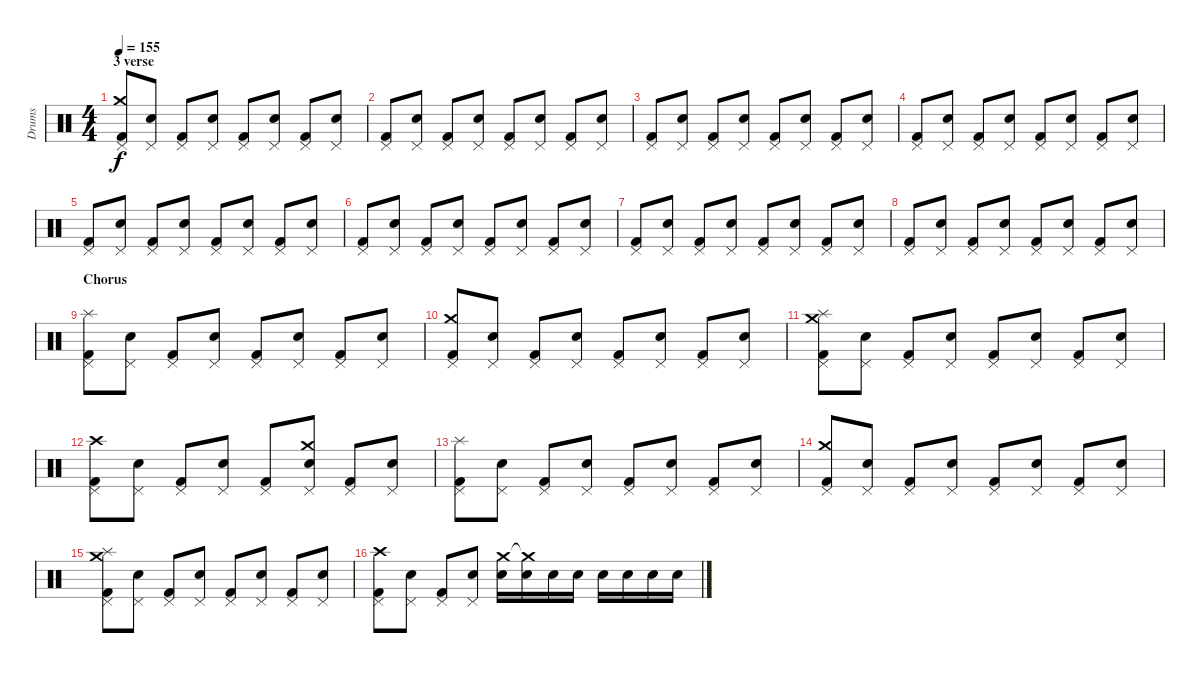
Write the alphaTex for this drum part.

\track ("Drums" "Drums") {instrument percussion}
\staff {score}
\articulation defaults
\ts (4 4)
\section ("" "3 verse")
\tempo 155
\clef neutral
\ks c
("Pedal Hi-Hat (hit)" "Crash medium (hit)" "Kick (hit) 2").8{dy f} ("Pedal Hi-Hat (hit)" "Electric Snare (hit)").8 ("Pedal Hi-Hat (hit)" "Kick (hit) 2").8 ("Pedal Hi-Hat (hit)" "Electric Snare (hit)").8 ("Pedal Hi-Hat (hit)" "Kick (hit) 2").8 ("Pedal Hi-Hat (hit)" "Electric Snare (hit)").8 ("Pedal Hi-Hat (hit)" "Kick (hit) 2").8 ("Pedal Hi-Hat (hit)" "Electric Snare (hit)").8 |
("Pedal Hi-Hat (hit)" "Kick (hit) 2").8 ("Pedal Hi-Hat (hit)" "Electric Snare (hit)").8 ("Pedal Hi-Hat (hit)" "Kick (hit) 2").8 ("Pedal Hi-Hat (hit)" "Electric Snare (hit)").8 ("Pedal Hi-Hat (hit)" "Kick (hit) 2").8 ("Pedal Hi-Hat (hit)" "Electric Snare (hit)").8 ("Pedal Hi-Hat (hit)" "Kick (hit) 2").8 ("Pedal Hi-Hat (hit)" "Electric Snare (hit)").8 |
("Pedal Hi-Hat (hit)" "Kick (hit) 2").8 ("Pedal Hi-Hat (hit)" "Electric Snare (hit)").8 ("Pedal Hi-Hat (hit)" "Kick (hit) 2").8 ("Pedal Hi-Hat (hit)" "Electric Snare (hit)").8 ("Pedal Hi-Hat (hit)" "Kick (hit) 2").8 ("Pedal Hi-Hat (hit)" "Electric Snare (hit)").8 ("Pedal Hi-Hat (hit)" "Kick (hit) 2").8 ("Pedal Hi-Hat (hit)" "Electric Snare (hit)").8 |
("Pedal Hi-Hat (hit)" "Kick (hit) 2").8 ("Pedal Hi-Hat (hit)" "Electric Snare (hit)").8 ("Pedal Hi-Hat (hit)" "Kick (hit) 2").8 ("Pedal Hi-Hat (hit)" "Electric Snare (hit)").8 ("Pedal Hi-Hat (hit)" "Kick (hit) 2").8 ("Pedal Hi-Hat (hit)" "Electric Snare (hit)").8 ("Pedal Hi-Hat (hit)" "Kick (hit) 2").8 ("Pedal Hi-Hat (hit)" "Electric Snare (hit)").8 |
("Pedal Hi-Hat (hit)" "Kick (hit) 2").8 ("Pedal Hi-Hat (hit)" "Electric Snare (hit)").8 ("Pedal Hi-Hat (hit)" "Kick (hit) 2").8 ("Pedal Hi-Hat (hit)" "Electric Snare (hit)").8 ("Pedal Hi-Hat (hit)" "Kick (hit) 2").8 ("Pedal Hi-Hat (hit)" "Electric Snare (hit)").8 ("Pedal Hi-Hat (hit)" "Kick (hit) 2").8 ("Pedal Hi-Hat (hit)" "Electric Snare (hit)").8 |
("Pedal Hi-Hat (hit)" "Kick (hit) 2").8 ("Pedal Hi-Hat (hit)" "Electric Snare (hit)").8 ("Pedal Hi-Hat (hit)" "Kick (hit) 2").8 ("Pedal Hi-Hat (hit)" "Electric Snare (hit)").8 ("Pedal Hi-Hat (hit)" "Kick (hit) 2").8 ("Pedal Hi-Hat (hit)" "Electric Snare (hit)").8 ("Pedal Hi-Hat (hit)" "Kick (hit) 2").8 ("Pedal Hi-Hat (hit)" "Electric Snare (hit)").8 |
("Pedal Hi-Hat (hit)" "Kick (hit) 2").8 ("Pedal Hi-Hat (hit)" "Electric Snare (hit)").8 ("Pedal Hi-Hat (hit)" "Kick (hit) 2").8 ("Pedal Hi-Hat (hit)" "Electric Snare (hit)").8 ("Pedal Hi-Hat (hit)" "Kick (hit) 2").8 ("Pedal Hi-Hat (hit)" "Electric Snare (hit)").8 ("Pedal Hi-Hat (hit)" "Kick (hit) 2").8 ("Pedal Hi-Hat (hit)" "Electric Snare (hit)").8 |
("Pedal Hi-Hat (hit)" "Kick (hit) 2").8 ("Pedal Hi-Hat (hit)" "Electric Snare (hit)").8 ("Pedal Hi-Hat (hit)" "Kick (hit) 2").8 ("Pedal Hi-Hat (hit)" "Electric Snare (hit)").8 ("Pedal Hi-Hat (hit)" "Kick (hit) 2").8 ("Pedal Hi-Hat (hit)" "Electric Snare (hit)").8 ("Pedal Hi-Hat (hit)" "Kick (hit) 2").8 ("Pedal Hi-Hat (hit)" "Electric Snare (hit)").8 |
\section ("" "Chorus")
("Pedal Hi-Hat (hit)" "Splash (hit)" "Kick (hit) 2").8 ("Pedal Hi-Hat (hit)" "Electric Snare (hit)").8 ("Pedal Hi-Hat (hit)" "Kick (hit) 2").8 ("Pedal Hi-Hat (hit)" "Electric Snare (hit)").8 ("Pedal Hi-Hat (hit)" "Kick (hit) 2").8 ("Pedal Hi-Hat (hit)" "Electric Snare (hit)").8 ("Pedal Hi-Hat (hit)" "Kick (hit) 2").8 ("Pedal Hi-Hat (hit)" "Electric Snare (hit)").8 |
("Pedal Hi-Hat (hit)" "Crash medium (hit)" "Kick (hit) 2").8 ("Pedal Hi-Hat (hit)" "Electric Snare (hit)").8 ("Pedal Hi-Hat (hit)" "Kick (hit) 2").8 ("Pedal Hi-Hat (hit)" "Electric Snare (hit)").8 ("Pedal Hi-Hat (hit)" "Kick (hit) 2").8 ("Pedal Hi-Hat (hit)" "Electric Snare (hit)").8 ("Pedal Hi-Hat (hit)" "Kick (hit) 2").8 ("Pedal Hi-Hat (hit)" "Electric Snare (hit)").8 |
("Pedal Hi-Hat (hit)" "Splash (hit)" "Crash medium (hit)" "Kick (hit) 2").8 ("Pedal Hi-Hat (hit)" "Electric Snare (hit)").8 ("Pedal Hi-Hat (hit)" "Kick (hit) 2").8 ("Pedal Hi-Hat (hit)" "Electric Snare (hit)").8 ("Pedal Hi-Hat (hit)" "Kick (hit) 2").8 ("Pedal Hi-Hat (hit)" "Electric Snare (hit)").8 ("Pedal Hi-Hat (hit)" "Kick (hit) 2").8 ("Pedal Hi-Hat (hit)" "Electric Snare (hit)").8 |
("Pedal Hi-Hat (hit)" "Crash high (hit)" "Kick (hit) 2").8 ("Pedal Hi-Hat (hit)" "Electric Snare (hit)").8 ("Pedal Hi-Hat (hit)" "Kick (hit) 2").8 ("Pedal Hi-Hat (hit)" "Electric Snare (hit)").8 ("Pedal Hi-Hat (hit)" "Kick (hit) 2").8 ("Pedal Hi-Hat (hit)" "Crash medium (hit)" "Electric Snare (hit)").8 ("Pedal Hi-Hat (hit)" "Kick (hit) 2").8 ("Pedal Hi-Hat (hit)" "Electric Snare (hit)").8 |
("Pedal Hi-Hat (hit)" "Splash (hit)" "Kick (hit) 2").8 ("Pedal Hi-Hat (hit)" "Electric Snare (hit)").8 ("Pedal Hi-Hat (hit)" "Kick (hit) 2").8 ("Pedal Hi-Hat (hit)" "Electric Snare (hit)").8 ("Pedal Hi-Hat (hit)" "Kick (hit) 2").8 ("Pedal Hi-Hat (hit)" "Electric Snare (hit)").8 ("Pedal Hi-Hat (hit)" "Kick (hit) 2").8 ("Pedal Hi-Hat (hit)" "Electric Snare (hit)").8 |
("Pedal Hi-Hat (hit)" "Crash medium (hit)" "Kick (hit) 2").8 ("Pedal Hi-Hat (hit)" "Electric Snare (hit)").8 ("Pedal Hi-Hat (hit)" "Kick (hit) 2").8 ("Pedal Hi-Hat (hit)" "Electric Snare (hit)").8 ("Pedal Hi-Hat (hit)" "Kick (hit) 2").8 ("Pedal Hi-Hat (hit)" "Electric Snare (hit)").8 ("Pedal Hi-Hat (hit)" "Kick (hit) 2").8 ("Pedal Hi-Hat (hit)" "Electric Snare (hit)").8 |
("Pedal Hi-Hat (hit)" "Splash (hit)" "Crash medium (hit)" "Kick (hit) 2").8 ("Pedal Hi-Hat (hit)" "Electric Snare (hit)").8 ("Pedal Hi-Hat (hit)" "Kick (hit) 2").8 ("Pedal Hi-Hat (hit)" "Electric Snare (hit)").8 ("Pedal Hi-Hat (hit)" "Kick (hit) 2").8 ("Pedal Hi-Hat (hit)" "Electric Snare (hit)").8 ("Pedal Hi-Hat (hit)" "Kick (hit) 2").8 ("Pedal Hi-Hat (hit)" "Electric Snare (hit)").8 |
("Pedal Hi-Hat (hit)" "Crash high (hit)" "Kick (hit) 2").8 ("Pedal Hi-Hat (hit)" "Electric Snare (hit)").8 ("Pedal Hi-Hat (hit)" "Kick (hit) 2").8 ("Pedal Hi-Hat (hit)" "Electric Snare (hit)").8 ("Crash medium (hit)" "Electric Snare (hit)").16 ("Crash medium (hit)"{t} "Electric Snare (hit)").16 "Electric Snare (hit)".16 "Electric Snare (hit)".16 "Electric Snare (hit)".16 "Electric Snare (hit)".16 "Electric Snare (hit)".16 "Electric Snare (hit)".16
